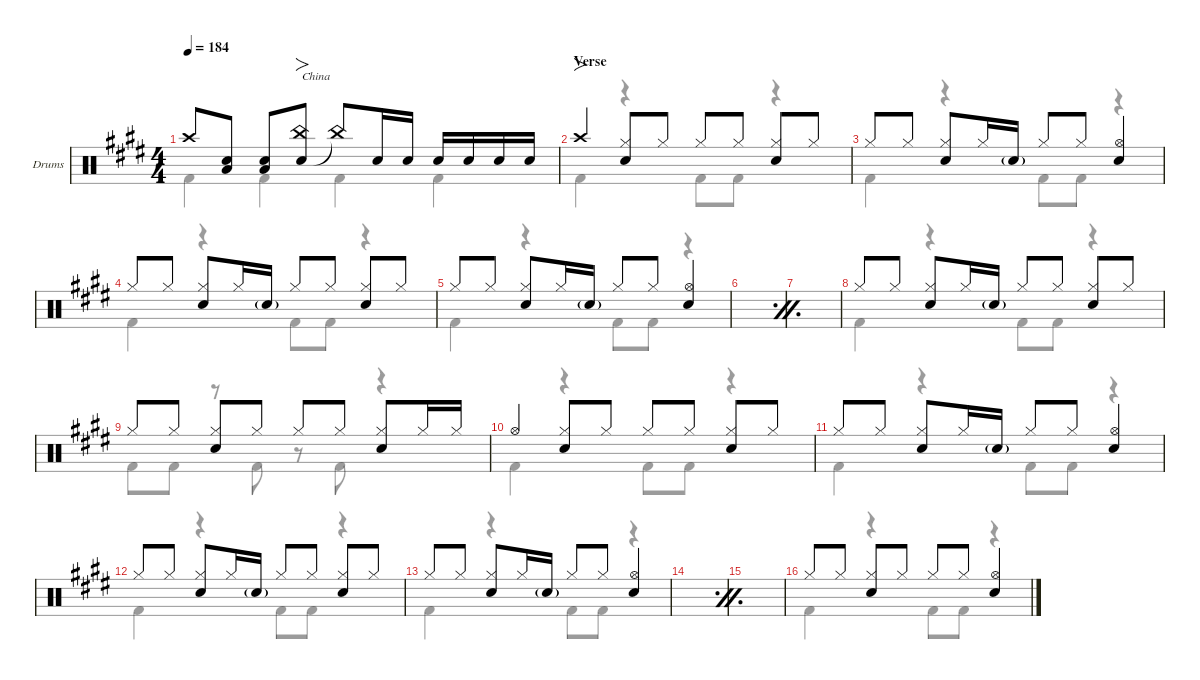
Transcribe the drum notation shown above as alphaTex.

\defaultSystemsLayout 4
\hideDynamics
\bracketExtendMode nobrackets
\firstSystemTrackNameOrientation horizontal
\track ("Drums" "Drums") {defaultSystemsLayout 4 instrument percussion}
\staff {score}
\articulation defaults
\voice
\ts (4 4)
\tempo 184
\clef neutral
\ks e "Crash high (hit)"{t acc forcenatural}.8{dy f}
("Snare (hit) 2"{acc forcenatural} "Low Tom (hit)"{acc forcenatural}).8 ("Snare (hit) 2"{acc forcenatural} "Low Tom (hit)"{acc forcenatural}).8 ("Snare (hit) 2"{acc forcenatural} "China (hit)"{acc forcenatural}).8{fo txt "China"} "China (hit)"{t acc forcenatural}.8 "Snare (hit) 2"{acc forcenatural}.16 "Snare (hit) 2"{acc forcenatural}.16{dy mf beam split} "Snare (hit) 2"{acc forcenatural}.16{dy f} "Snare (hit) 2"{acc forcenatural}.16{dy mf} "Snare (hit) 2"{acc forcenatural}.16{dy f} "Snare (hit) 2"{acc forcenatural}.16{dy mf} |
\section ("" "Verse")
"Crash high (hit)"{acc forcenatural}.4{fo dy f} ("Hi-Hat (closed)"{acc forcenatural} "Snare (hit) 2"{acc forcenatural}).8 "Hi-Hat (closed)"{acc forcenatural}.8{dy mf} "Hi-Hat (closed)"{acc forcenatural}.8{dy f} "Hi-Hat (closed)"{acc forcenatural}.8{dy mf} ("Snare (hit) 2"{acc forcenatural} "Hi-Hat (closed)"{acc forcenatural}).8{dy f} "Hi-Hat (closed)"{acc forcenatural}.8{dy mf} |
"Hi-Hat (closed)"{acc forcenatural}.8{dy f} "Hi-Hat (closed)"{acc forcenatural}.8{dy mf beam split} ("Snare (hit) 2"{acc forcenatural} "Hi-Hat (closed)"{acc forcenatural}).8{dy f} "Hi-Hat (closed)"{acc forcenatural}.16{dy mf} "Snare (hit) 2"{g acc forcenatural}.16 "Hi-Hat (closed)"{acc forcenatural}.8{dy f} "Hi-Hat (closed)"{acc forcenatural}.8{dy mf} ("Snare (hit) 2"{acc forcenatural} "Hi-Hat (open)"{acc forcenatural}).4{dy f} |
"Hi-Hat (closed)"{acc forcenatural}.8 "Hi-Hat (closed)"{acc forcenatural}.8{dy mf beam split} ("Snare (hit) 2"{acc forcenatural} "Hi-Hat (closed)"{acc forcenatural}).8{dy f} "Hi-Hat (closed)"{acc forcenatural}.16{dy mf} "Snare (hit) 2"{g acc forcenatural}.16 "Hi-Hat (closed)"{acc forcenatural}.8{dy f} "Hi-Hat (closed)"{acc forcenatural}.8{dy mf} ("Snare (hit) 2"{acc forcenatural} "Hi-Hat (closed)"{acc forcenatural}).8{dy f} "Hi-Hat (closed)"{acc forcenatural}.8{dy mf} |
"Hi-Hat (closed)"{acc forcenatural}.8{dy f} "Hi-Hat (closed)"{acc forcenatural}.8{dy mf beam split} ("Snare (hit) 2"{acc forcenatural} "Hi-Hat (closed)"{acc forcenatural}).8{dy f} "Hi-Hat (closed)"{acc forcenatural}.16{dy mf} "Snare (hit) 2"{g acc forcenatural}.16 "Hi-Hat (closed)"{acc forcenatural}.8{dy f} "Hi-Hat (closed)"{acc forcenatural}.8{dy mf} ("Snare (hit) 2"{acc forcenatural} "Hi-Hat (open)"{acc forcenatural}).4{dy f} |
\simile firstofdouble
|
\simile secondofdouble
|
\simile none "Hi-Hat (closed)"{acc forcenatural}.8 "Hi-Hat (closed)"{acc forcenatural}.8{dy mf beam split}
("Snare (hit) 2"{acc forcenatural} "Hi-Hat (closed)"{acc forcenatural}).8{dy f} "Hi-Hat (closed)"{acc forcenatural}.16{dy mf} "Snare (hit) 2"{g acc forcenatural}.16 "Hi-Hat (closed)"{acc forcenatural}.8{dy f} "Hi-Hat (closed)"{acc forcenatural}.8{dy mf} ("Snare (hit) 2"{acc forcenatural} "Hi-Hat (closed)"{acc forcenatural}).8{dy f} "Hi-Hat (closed)"{acc forcenatural}.8{dy mf} |
"Hi-Hat (closed)"{acc forcenatural}.8{dy f} "Hi-Hat (closed)"{acc forcenatural}.8{dy mf} ("Snare (hit) 2"{acc forcenatural} "Hi-Hat (closed)"{acc forcenatural}).8{dy f} "Hi-Hat (closed)"{acc forcenatural}.8{dy mf} "Hi-Hat (closed)"{acc forcenatural}.8{dy f} "Hi-Hat (closed)"{acc forcenatural}.8{dy mf beam split} ("Snare (hit) 2"{acc forcenatural} "Hi-Hat (closed)"{acc forcenatural}).8{dy f} "Hi-Hat (closed)"{acc forcenatural}.16{dy mf} "Hi-Hat (closed)"{acc forcenatural}.16 |
"Hi-Hat (open)"{acc forcenatural}.4{dy f} ("Snare (hit) 2"{acc forcenatural} "Hi-Hat (closed)"{acc forcenatural}).8 "Hi-Hat (closed)"{acc forcenatural}.8{dy mf} "Hi-Hat (closed)"{acc forcenatural}.8{dy f} "Hi-Hat (closed)"{acc forcenatural}.8{dy mf} ("Snare (hit) 2"{acc forcenatural} "Hi-Hat (closed)"{acc forcenatural}).8{dy f} "Hi-Hat (closed)"{acc forcenatural}.8{dy mf} |
"Hi-Hat (closed)"{acc forcenatural}.8{dy f} "Hi-Hat (closed)"{acc forcenatural}.8{dy mf beam split} ("Snare (hit) 2"{acc forcenatural} "Hi-Hat (closed)"{acc forcenatural}).8{dy f} "Hi-Hat (closed)"{acc forcenatural}.16{dy mf} "Snare (hit) 2"{g acc forcenatural}.16 "Hi-Hat (closed)"{acc forcenatural}.8{dy f} "Hi-Hat (closed)"{acc forcenatural}.8{dy mf} ("Snare (hit) 2"{acc forcenatural} "Hi-Hat (open)"{acc forcenatural}).4{dy f} |
"Hi-Hat (closed)"{acc forcenatural}.8 "Hi-Hat (closed)"{acc forcenatural}.8{dy mf beam split} ("Snare (hit) 2"{acc forcenatural} "Hi-Hat (closed)"{acc forcenatural}).8{dy f} "Hi-Hat (closed)"{acc forcenatural}.16{dy mf} "Snare (hit) 2"{g acc forcenatural}.16 "Hi-Hat (closed)"{acc forcenatural}.8{dy f} "Hi-Hat (closed)"{acc forcenatural}.8{dy mf} ("Snare (hit) 2"{acc forcenatural} "Hi-Hat (closed)"{acc forcenatural}).8{dy f} "Hi-Hat (closed)"{acc forcenatural}.8{dy mf} |
"Hi-Hat (closed)"{acc forcenatural}.8{dy f} "Hi-Hat (closed)"{acc forcenatural}.8{dy mf beam split} ("Snare (hit) 2"{acc forcenatural} "Hi-Hat (closed)"{acc forcenatural}).8{dy f} "Hi-Hat (closed)"{acc forcenatural}.16{dy mf} "Snare (hit) 2"{g acc forcenatural}.16 "Hi-Hat (closed)"{acc forcenatural}.8{dy f} "Hi-Hat (closed)"{acc forcenatural}.8{dy mf} ("Snare (hit) 2"{acc forcenatural} "Hi-Hat (open)"{acc forcenatural}).4{dy f} |
\simile firstofdouble
|
\simile secondofdouble
|
\simile none "Hi-Hat (closed)"{acc forcenatural}.8 "Hi-Hat (closed)"{acc forcenatural}.8{dy mf}
("Snare (hit) 2"{acc forcenatural} "Hi-Hat (closed)"{acc forcenatural}).8{dy f} "Hi-Hat (closed)"{acc forcenatural}.8{dy mf} "Hi-Hat (closed)"{acc forcenatural}.8{dy f} "Hi-Hat (closed)"{acc forcenatural}.8{dy mf} ("Snare (hit) 2"{acc forcenatural} "Hi-Hat (open)"{acc forcenatural}).4{dy f}
\voice
\clef neutral
\ottava regular
\simile none
\ks e "Kick (hit) 2"{acc forcenatural}.4{dy f} "Kick (hit) 2"{acc forcenatural}.4 "Kick (hit) 2"{acc forcenatural}.4 "Kick (hit) 2"{acc forcenatural}.4
|
"Kick (hit) 2"{acc forcenatural}.4 r.4 "Kick (hit) 2"{acc forcenatural}.8 "Kick (hit) 2"{acc forcenatural}.8 r.4 |
"Kick (hit) 2"{acc forcenatural}.4 r.4 "Kick (hit) 2"{acc forcenatural}.8 "Kick (hit) 2"{acc forcenatural}.8 r.4 |
"Kick (hit) 2"{acc forcenatural}.4 r.4 "Kick (hit) 2"{acc forcenatural}.8 "Kick (hit) 2"{acc forcenatural}.8 r.4 |
"Kick (hit) 2"{acc forcenatural}.4 r.4 "Kick (hit) 2"{acc forcenatural}.8 "Kick (hit) 2"{acc forcenatural}.8 r.4 |
\simile firstofdouble
|
\simile secondofdouble
|
\simile none "Kick (hit) 2"{acc forcenatural}.4
r.4 "Kick (hit) 2"{acc forcenatural}.8 "Kick (hit) 2"{acc forcenatural}.8 r.4 |
"Kick (hit) 2"{acc forcenatural}.8 "Kick (hit) 2"{acc forcenatural}.8 r.8 "Kick (hit) 2"{acc forcenatural}.8 r.8 "Kick (hit) 2"{acc forcenatural}.8 r.4 |
"Kick (hit) 2"{acc forcenatural}.4 r.4 "Kick (hit) 2"{acc forcenatural}.8 "Kick (hit) 2"{acc forcenatural}.8 r.4 |
"Kick (hit) 2"{acc forcenatural}.4 r.4 "Kick (hit) 2"{acc forcenatural}.8 "Kick (hit) 2"{acc forcenatural}.8 r.4 |
"Kick (hit) 2"{acc forcenatural}.4 r.4 "Kick (hit) 2"{acc forcenatural}.8 "Kick (hit) 2"{acc forcenatural}.8 r.4 |
"Kick (hit) 2"{acc forcenatural}.4 r.4 "Kick (hit) 2"{acc forcenatural}.8 "Kick (hit) 2"{acc forcenatural}.8 r.4 |
\simile firstofdouble
|
\simile secondofdouble
|
\simile none "Kick (hit) 2"{acc forcenatural}.4
r.4 "Kick (hit) 2"{acc forcenatural}.8 "Kick (hit) 2"{acc forcenatural}.8 r.4
